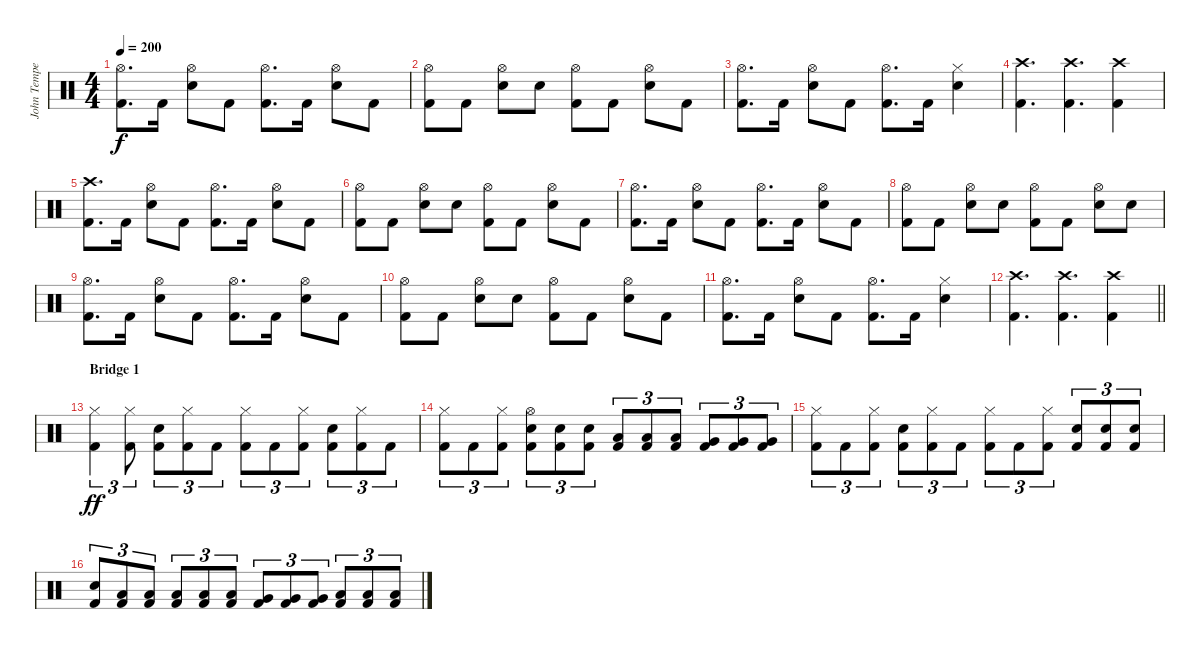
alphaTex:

\track ("John Tempesta" "John Tempe") {instrument percussion}
\staff {score}
\articulation defaults
\ts (4 4)
\tempo 200
\clef neutral
\ks c
("Hi-Hat (open)" "Kick (hit) 2").8{d dy f} "Kick (hit) 2".16 ("Electric Snare (hit)" "Hi-Hat (open)").8 "Kick (hit) 2".8 ("Hi-Hat (open)" "Kick (hit) 2").8{d} "Kick (hit) 2".16 ("Electric Snare (hit)" "Hi-Hat (open)").8 "Kick (hit) 2".8 |
("Hi-Hat (open)" "Kick (hit) 2").8 "Kick (hit) 2".8 ("Electric Snare (hit)" "Hi-Hat (open)").8 "Electric Snare (hit)".8 ("Hi-Hat (open)" "Kick (hit) 2").8 "Kick (hit) 2".8 ("Electric Snare (hit)" "Hi-Hat (open)").8 "Kick (hit) 2".8 |
("Hi-Hat (open)" "Kick (hit) 2").8{d} "Kick (hit) 2".16 ("Electric Snare (hit)" "Hi-Hat (open)").8 "Kick (hit) 2".8 ("Hi-Hat (open)" "Kick (hit) 2").8{d} "Kick (hit) 2".16 ("Electric Snare (hit)" "Hi-Hat (closed)").4 |
("Crash high (hit)" "Kick (hit) 2").4{d} ("Crash high (hit)" "Kick (hit) 2").4{d} ("Crash high (hit)" "Kick (hit) 2").4 |
("Crash high (hit)" "Kick (hit) 2").8{d} "Kick (hit) 2".16 ("Electric Snare (hit)" "Hi-Hat (open)").8 "Kick (hit) 2".8 ("Hi-Hat (open)" "Kick (hit) 2").8{d} "Kick (hit) 2".16 ("Electric Snare (hit)" "Hi-Hat (open)").8 "Kick (hit) 2".8 |
("Hi-Hat (open)" "Kick (hit) 2").8 "Kick (hit) 2".8 ("Electric Snare (hit)" "Hi-Hat (open)").8 "Electric Snare (hit)".8 ("Hi-Hat (open)" "Kick (hit) 2").8 "Kick (hit) 2".8 ("Electric Snare (hit)" "Hi-Hat (open)").8 "Kick (hit) 2".8 |
("Hi-Hat (open)" "Kick (hit) 2").8{d} "Kick (hit) 2".16 ("Electric Snare (hit)" "Hi-Hat (open)").8 "Kick (hit) 2".8 ("Hi-Hat (open)" "Kick (hit) 2").8{d} "Kick (hit) 2".16 ("Electric Snare (hit)" "Hi-Hat (open)").8 "Kick (hit) 2".8 |
("Hi-Hat (open)" "Kick (hit) 2").8 "Kick (hit) 2".8 ("Electric Snare (hit)" "Hi-Hat (open)").8 "Electric Snare (hit)".8 ("Hi-Hat (open)" "Kick (hit) 2").8 "Kick (hit) 2".8 ("Electric Snare (hit)" "Hi-Hat (open)").8 "Electric Snare (hit)".8 |
("Hi-Hat (open)" "Kick (hit) 2").8{d} "Kick (hit) 2".16 ("Electric Snare (hit)" "Hi-Hat (open)").8 "Kick (hit) 2".8 ("Hi-Hat (open)" "Kick (hit) 2").8{d} "Kick (hit) 2".16 ("Electric Snare (hit)" "Hi-Hat (open)").8 "Kick (hit) 2".8 |
("Hi-Hat (open)" "Kick (hit) 2").8 "Kick (hit) 2".8 ("Electric Snare (hit)" "Hi-Hat (open)").8 "Electric Snare (hit)".8 ("Hi-Hat (open)" "Kick (hit) 2").8 "Kick (hit) 2".8 ("Electric Snare (hit)" "Hi-Hat (open)").8 "Kick (hit) 2".8 |
("Hi-Hat (open)" "Kick (hit) 2").8{d} "Kick (hit) 2".16 ("Electric Snare (hit)" "Hi-Hat (open)").8 "Kick (hit) 2".8 ("Hi-Hat (open)" "Kick (hit) 2").8{d} "Kick (hit) 2".16 ("Electric Snare (hit)" "Hi-Hat (closed)").4 |
\barLineRight lightlight
("Crash high (hit)" "Kick (hit) 2").4{d} ("Crash high (hit)" "Kick (hit) 2").4{d} ("Crash high (hit)" "Kick (hit) 2").4 |
\section ("" "Bridge 1")
("Hi-Hat (closed)" "Kick (hit) 2").4{tu (3 2) dy ff} ("Hi-Hat (closed)" "Kick (hit) 2").8{tu (3 2)} ("Electric Snare (hit)" "Kick (hit) 2").8{tu (3 2)} ("Hi-Hat (closed)" "Kick (hit) 2").8{tu (3 2)} "Kick (hit) 2".8{tu (3 2)} ("Hi-Hat (closed)" "Kick (hit) 2").8{tu (3 2)} "Kick (hit) 2".8{tu (3 2)} ("Hi-Hat (closed)" "Kick (hit) 2").8{tu (3 2)} ("Electric Snare (hit)" "Kick (hit) 2").8{tu (3 2)} ("Hi-Hat (closed)" "Kick (hit) 2").8{tu (3 2)} "Kick (hit) 2".8{tu (3 2)} |
("Hi-Hat (closed)" "Kick (hit) 2").8{tu (3 2)} "Kick (hit) 2".8{tu (3 2)} ("Hi-Hat (closed)" "Kick (hit) 2").8{tu (3 2)} ("Electric Snare (hit)" "Hi-Hat (open)" "Kick (hit) 2").8{tu (3 2)} ("Electric Snare (hit)" "Kick (hit) 2").8{tu (3 2)} ("Electric Snare (hit)" "Kick (hit) 2").8{tu (3 2)} ("Low Tom (hit)" "Kick (hit) 2").8{tu (3 2)} ("Low Tom (hit)" "Kick (hit) 2").8{tu (3 2)} ("Low Tom (hit)" "Kick (hit) 2").8{tu (3 2)} ("Very Low Tom (hit)" "Kick (hit) 2").8{tu (3 2)} ("Very Low Tom (hit)" "Kick (hit) 2").8{tu (3 2)} ("Very Low Tom (hit)" "Kick (hit) 2").8{tu (3 2)} |
("Hi-Hat (closed)" "Kick (hit) 2").8{tu (3 2)} "Kick (hit) 2".8{tu (3 2)} ("Hi-Hat (closed)" "Kick (hit) 2").8{tu (3 2)} ("Electric Snare (hit)" "Kick (hit) 2").8{tu (3 2)} ("Hi-Hat (closed)" "Kick (hit) 2").8{tu (3 2)} "Kick (hit) 2".8{tu (3 2)} ("Hi-Hat (closed)" "Kick (hit) 2").8{tu (3 2)} "Kick (hit) 2".8{tu (3 2)} ("Hi-Hat (closed)" "Kick (hit) 2").8{tu (3 2)} ("Electric Snare (hit)" "Kick (hit) 2").8{tu (3 2)} ("Electric Snare (hit)" "Kick (hit) 2").8{tu (3 2)} ("Electric Snare (hit)" "Kick (hit) 2").8{tu (3 2)} |
("Electric Snare (hit)" "Kick (hit) 2").8{tu (3 2)} ("Low Tom (hit)" "Kick (hit) 2").8{tu (3 2)} ("Low Tom (hit)" "Kick (hit) 2").8{tu (3 2)} ("Low Tom (hit)" "Kick (hit) 2").8{tu (3 2)} ("Low Tom (hit)" "Kick (hit) 2").8{tu (3 2)} ("Low Tom (hit)" "Kick (hit) 2").8{tu (3 2)} ("Very Low Tom (hit)" "Kick (hit) 2").8{tu (3 2)} ("Very Low Tom (hit)" "Kick (hit) 2").8{tu (3 2)} ("Very Low Tom (hit)" "Kick (hit) 2").8{tu (3 2)} ("Low Floor Tom (hit)" "Kick (hit) 2").8{tu (3 2)} ("Low Floor Tom (hit)" "Kick (hit) 2").8{tu (3 2)} ("Low Floor Tom (hit)" "Kick (hit) 2").8{tu (3 2)}
